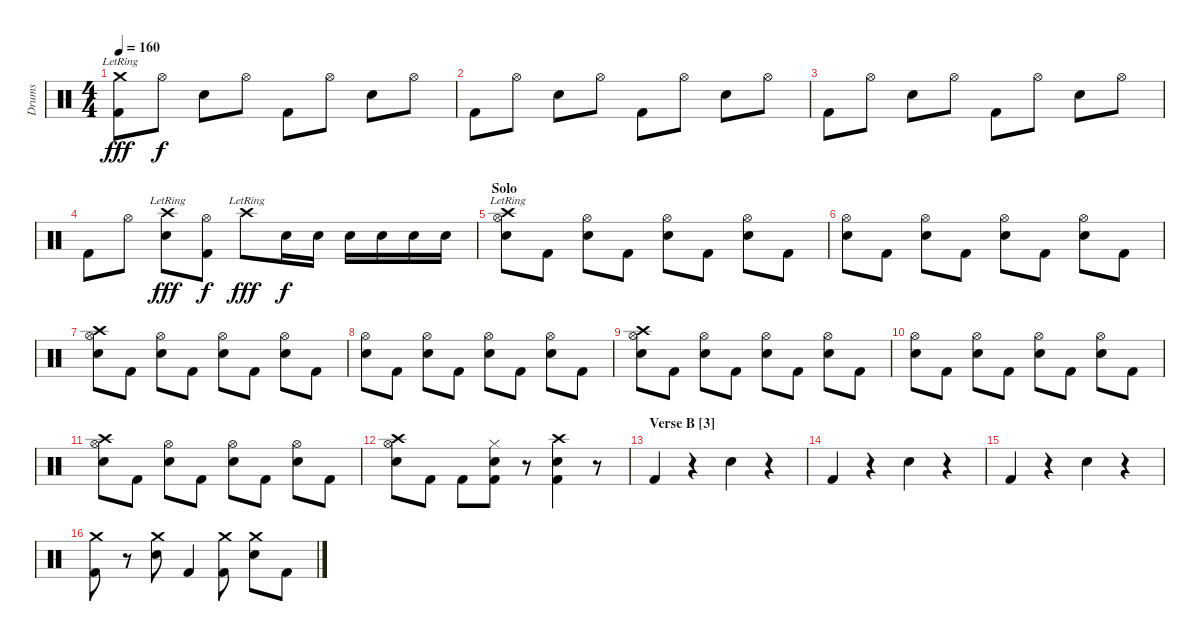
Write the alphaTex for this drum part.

\track ("Drums" "Drums") {instrument percussion}
\staff {score}
\articulation defaults
\ts (4 4)
\tempo 160
\clef neutral
\ks c
("Crash medium (hit)"{lr} "Kick (hit) 2").8{dy fff} "Hi-Hat (open)".8{dy f} "Electric Snare (hit)".8 "Hi-Hat (open)".8 "Kick (hit) 2".8 "Hi-Hat (open)".8 "Electric Snare (hit)".8 "Hi-Hat (open)".8 |
"Kick (hit) 2".8 "Hi-Hat (open)".8 "Electric Snare (hit)".8 "Hi-Hat (open)".8 "Kick (hit) 2".8 "Hi-Hat (open)".8 "Electric Snare (hit)".8 "Hi-Hat (open)".8 |
"Kick (hit) 2".8 "Hi-Hat (open)".8 "Electric Snare (hit)".8 "Hi-Hat (open)".8 "Kick (hit) 2".8 "Hi-Hat (open)".8 "Electric Snare (hit)".8 "Hi-Hat (open)".8 |
"Kick (hit) 2".8 "Hi-Hat (open)".8 ("Crash high (hit)"{lr} "Electric Snare (hit)").8{dy fff} ("Hi-Hat (open)" "Kick (hit) 2").8{dy f} "Crash high (hit)"{lr}.8{dy fff} "Electric Snare (hit)".16{dy f} "Electric Snare (hit)".16 "Electric Snare (hit)".16 "Electric Snare (hit)".16 "Electric Snare (hit)".16 "Electric Snare (hit)".16 |
\section ("" "Solo")
("Crash high (hit)"{lr} "Hi-Hat (open)" "Electric Snare (hit)").8 "Kick (hit) 2".8 ("Hi-Hat (open)" "Electric Snare (hit)").8 "Kick (hit) 2".8 ("Hi-Hat (open)" "Electric Snare (hit)").8 "Kick (hit) 2".8 ("Hi-Hat (open)" "Electric Snare (hit)").8 "Kick (hit) 2".8 |
("Hi-Hat (open)" "Electric Snare (hit)").8 "Kick (hit) 2".8 ("Hi-Hat (open)" "Electric Snare (hit)").8 "Kick (hit) 2".8 ("Hi-Hat (open)" "Electric Snare (hit)").8 "Kick (hit) 2".8 ("Hi-Hat (open)" "Electric Snare (hit)").8 "Kick (hit) 2".8 |
("Crash high (hit)" "Hi-Hat (open)" "Electric Snare (hit)").8 "Kick (hit) 2".8 ("Hi-Hat (open)" "Electric Snare (hit)").8 "Kick (hit) 2".8 ("Hi-Hat (open)" "Electric Snare (hit)").8 "Kick (hit) 2".8 ("Hi-Hat (open)" "Electric Snare (hit)").8 "Kick (hit) 2".8 |
("Hi-Hat (open)" "Electric Snare (hit)").8 "Kick (hit) 2".8 ("Hi-Hat (open)" "Electric Snare (hit)").8 "Kick (hit) 2".8 ("Hi-Hat (open)" "Electric Snare (hit)").8 "Kick (hit) 2".8 ("Hi-Hat (open)" "Electric Snare (hit)").8 "Kick (hit) 2".8 |
("Crash high (hit)" "Hi-Hat (open)" "Electric Snare (hit)").8 "Kick (hit) 2".8 ("Hi-Hat (open)" "Electric Snare (hit)").8 "Kick (hit) 2".8 ("Hi-Hat (open)" "Electric Snare (hit)").8 "Kick (hit) 2".8 ("Hi-Hat (open)" "Electric Snare (hit)").8 "Kick (hit) 2".8 |
("Hi-Hat (open)" "Electric Snare (hit)").8 "Kick (hit) 2".8 ("Hi-Hat (open)" "Electric Snare (hit)").8 "Kick (hit) 2".8 ("Hi-Hat (open)" "Electric Snare (hit)").8 "Kick (hit) 2".8 ("Hi-Hat (open)" "Electric Snare (hit)").8 "Kick (hit) 2".8 |
("Crash high (hit)" "Hi-Hat (open)" "Electric Snare (hit)").8 "Kick (hit) 2".8 ("Hi-Hat (open)" "Electric Snare (hit)").8 "Kick (hit) 2".8 ("Hi-Hat (open)" "Electric Snare (hit)").8 "Kick (hit) 2".8 ("Hi-Hat (open)" "Electric Snare (hit)").8 "Kick (hit) 2".8 |
("Crash high (hit)" "Hi-Hat (open)" "Electric Snare (hit)").8 "Kick (hit) 2".8 "Kick (hit) 2".8 ("Hi-Hat (closed)" "Electric Snare (hit)" "Kick (hit) 2").8 r.8 ("Crash high (hit)" "Electric Snare (hit)" "Kick (hit) 2").4 r.8 |
\section ("" "Verse B [3]")
"Kick (hit) 2".4 r.4 "Electric Snare (hit)".4 r.4 |
"Kick (hit) 2".4 r.4 "Electric Snare (hit)".4 r.4 |
"Kick (hit) 2".4 r.4 "Electric Snare (hit)".4 r.4 |
("Crash medium (hit)" "Kick (hit) 2").8 r.8 ("Crash medium (hit)" "Electric Snare (hit)").8 "Kick (hit) 2".4 ("Crash medium (hit)" "Kick (hit) 2").8 ("Crash medium (hit)" "Electric Snare (hit)").8 "Kick (hit) 2".8
